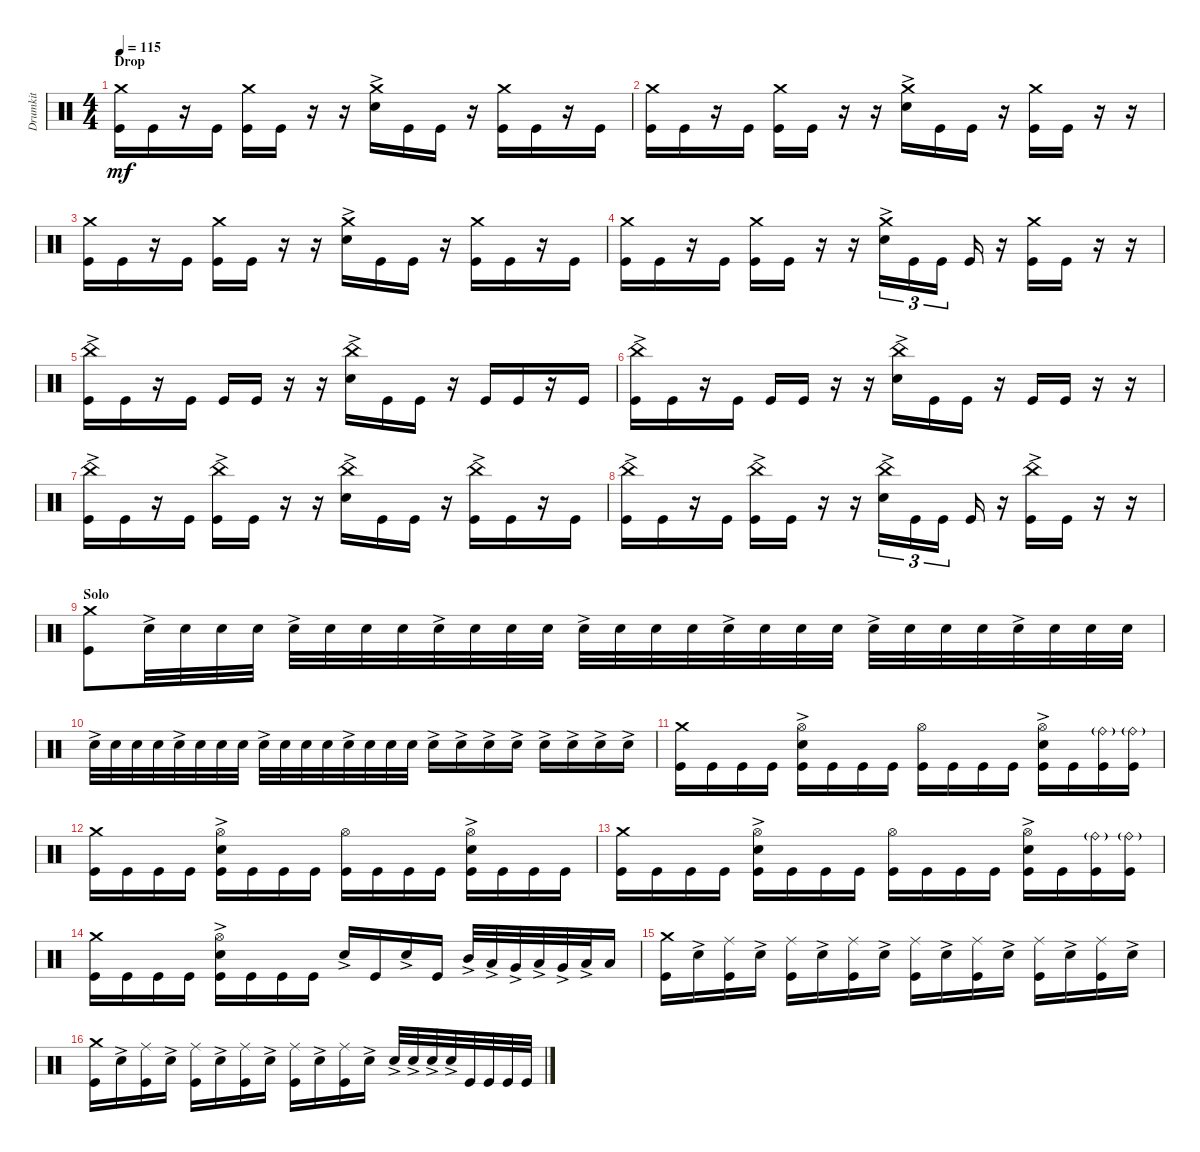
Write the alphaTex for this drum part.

\track ("Drumkit" "Drumkit") {instrument percussion}
\staff {score}
\articulation defaults
\ts (4 4)
\section ("" "Drop")
\tempo 115
\clef neutral
\ks c
("Crash medium (hit)" "Kick (hit)").16{dy mf} "Kick (hit)".16 r.16 "Kick (hit)".16 ("Crash medium (hit)" "Kick (hit)").16 "Kick (hit)".16 r.16 r.16 ("Crash medium (hit)" "Snare (hit) 2"{ac}).16 "Kick (hit)".16 "Kick (hit)".16 r.16 ("Crash medium (hit)" "Kick (hit)").16 "Kick (hit)".16 r.16 "Kick (hit)".16 |
("Crash medium (hit)" "Kick (hit)").16 "Kick (hit)".16 r.16 "Kick (hit)".16 ("Crash medium (hit)" "Kick (hit)").16 "Kick (hit)".16 r.16 r.16 ("Crash medium (hit)" "Snare (hit) 2"{ac}).16 "Kick (hit)".16 "Kick (hit)".16 r.16 ("Crash medium (hit)" "Kick (hit)").16 "Kick (hit)".16 r.16 r.16 |
("Crash medium (hit)" "Kick (hit)").16 "Kick (hit)".16 r.16 "Kick (hit)".16 ("Crash medium (hit)" "Kick (hit)").16 "Kick (hit)".16 r.16 r.16 ("Crash medium (hit)" "Snare (hit) 2"{ac}).16 "Kick (hit)".16 "Kick (hit)".16 r.16 ("Crash medium (hit)" "Kick (hit)").16 "Kick (hit)".16 r.16 "Kick (hit)".16 |
("Crash medium (hit)" "Kick (hit)").16 "Kick (hit)".16 r.16 "Kick (hit)".16 ("Crash medium (hit)" "Kick (hit)").16 "Kick (hit)".16 r.16 r.16 ("Crash medium (hit)" "Snare (hit) 2"{ac}).16{tu (3 2)} "Kick (hit)".16{tu (3 2)} "Kick (hit)".16{tu (3 2)} "Kick (hit)".16 r.16 ("Kick (hit)" "Crash medium (hit)").16 "Kick (hit)".16 r.16 r.16 |
("Kick (hit)" "China (hit)"{ac}).16 "Kick (hit)".16 r.16 "Kick (hit)".16 "Kick (hit)".16 "Kick (hit)".16 r.16 r.16 ("Snare (hit) 2"{ac} "China (hit)"{ac}).16 "Kick (hit)".16 "Kick (hit)".16 r.16 "Kick (hit)".16 "Kick (hit)".16 r.16 "Kick (hit)".16 |
("Kick (hit)" "China (hit)"{ac}).16 "Kick (hit)".16 r.16 "Kick (hit)".16 "Kick (hit)".16 "Kick (hit)".16 r.16 r.16 ("Snare (hit) 2"{ac} "China (hit)"{ac}).16 "Kick (hit)".16 "Kick (hit)".16 r.16 "Kick (hit)".16 "Kick (hit)".16 r.16 r.16 |
("Kick (hit)" "China (hit)"{ac}).16 "Kick (hit)".16 r.16 "Kick (hit)".16 ("Kick (hit)" "China (hit)"{ac}).16 "Kick (hit)".16 r.16 r.16 ("Snare (hit) 2"{ac} "China (hit)"{ac}).16 "Kick (hit)".16 "Kick (hit)".16 r.16 ("Kick (hit)" "China (hit)"{ac}).16 "Kick (hit)".16 r.16 "Kick (hit)".16 |
("Kick (hit)" "China (hit)"{ac}).16 "Kick (hit)".16 r.16 "Kick (hit)".16 ("Kick (hit)" "China (hit)"{ac}).16 "Kick (hit)".16 r.16 r.16 ("Snare (hit) 2"{ac} "China (hit)"{ac}).16{tu (3 2)} "Kick (hit)".16{tu (3 2)} "Kick (hit)".16{tu (3 2)} "Kick (hit)".16 r.16 ("Kick (hit)" "China (hit)"{ac}).16 "Kick (hit)".16 r.16 r.16 |
\section ("" "Solo")
("Kick (hit)" "Crash medium (hit)").8 "Snare (hit) 2"{ac}.32 "Snare (hit) 2".32 "Snare (hit) 2".32 "Snare (hit) 2".32 "Snare (hit) 2"{ac}.32 "Snare (hit) 2".32 "Snare (hit) 2".32 "Snare (hit) 2".32 "Snare (hit) 2"{ac}.32 "Snare (hit) 2".32 "Snare (hit) 2".32 "Snare (hit) 2".32 "Snare (hit) 2"{ac}.32 "Snare (hit) 2".32 "Snare (hit) 2".32 "Snare (hit) 2".32 "Snare (hit) 2"{ac}.32 "Snare (hit) 2".32 "Snare (hit) 2".32 "Snare (hit) 2".32 "Snare (hit) 2"{ac}.32 "Snare (hit) 2".32 "Snare (hit) 2".32 "Snare (hit) 2".32 "Snare (hit) 2"{ac}.32 "Snare (hit) 2".32 "Snare (hit) 2".32 "Snare (hit) 2".32 |
"Snare (hit) 2"{ac}.32 "Snare (hit) 2".32 "Snare (hit) 2".32 "Snare (hit) 2".32 "Snare (hit) 2"{ac}.32 "Snare (hit) 2".32 "Snare (hit) 2".32 "Snare (hit) 2".32 "Snare (hit) 2"{ac}.32 "Snare (hit) 2".32 "Snare (hit) 2".32 "Snare (hit) 2".32 "Snare (hit) 2"{ac}.32 "Snare (hit) 2".32 "Snare (hit) 2".32 "Snare (hit) 2".32 "Snare (hit) 2"{ac}.16 "Snare (hit) 2"{ac}.16 "Snare (hit) 2"{ac}.16 "Snare (hit) 2"{ac}.16 "Snare (hit) 2"{ac}.16 "Snare (hit) 2"{ac}.16 "Snare (hit) 2"{ac}.16 "Snare (hit) 2"{ac}.16 |
("Kick (hit)" "Crash medium (hit)").16 "Kick (hit)".16 "Kick (hit)".16 "Kick (hit)".16 ("Kick (hit)" "Hi-Hat (open)" "Snare (hit) 2"{ac}).16 "Kick (hit)".16 "Kick (hit)".16 "Kick (hit)".16 ("Kick (hit)" "Hi-Hat (open)").16 "Kick (hit)".16 "Kick (hit)".16 "Kick (hit)".16 ("Kick (hit)" "Hi-Hat (open)" "Snare (hit) 2"{ac}).16 "Kick (hit)".16 ("Kick (hit)" "Ride (bell)"{g}).16 ("Kick (hit)" "Ride (bell)"{g}).16 |
("Kick (hit)" "Crash medium (hit)").16 "Kick (hit)".16 "Kick (hit)".16 "Kick (hit)".16 ("Kick (hit)" "Hi-Hat (open)" "Snare (hit) 2"{ac}).16 "Kick (hit)".16 "Kick (hit)".16 "Kick (hit)".16 ("Kick (hit)" "Hi-Hat (open)").16 "Kick (hit)".16 "Kick (hit)".16 "Kick (hit)".16 ("Kick (hit)" "Hi-Hat (open)" "Snare (hit) 2"{ac}).16 "Kick (hit)".16 "Kick (hit)".16 "Kick (hit)".16 |
("Kick (hit)" "Crash medium (hit)").16 "Kick (hit)".16 "Kick (hit)".16 "Kick (hit)".16 ("Kick (hit)" "Hi-Hat (open)" "Snare (hit) 2"{ac}).16 "Kick (hit)".16 "Kick (hit)".16 "Kick (hit)".16 ("Kick (hit)" "Hi-Hat (open)").16 "Kick (hit)".16 "Kick (hit)".16 "Kick (hit)".16 ("Kick (hit)" "Hi-Hat (open)" "Snare (hit) 2"{ac}).16 "Kick (hit)".16 ("Kick (hit)" "Ride (bell)"{g}).16 ("Kick (hit)" "Ride (bell)"{g}).16 |
("Kick (hit)" "Crash medium (hit)").16 "Kick (hit)".16 "Kick (hit)".16 "Kick (hit)".16 ("Kick (hit)" "Hi-Hat (open)" "Snare (hit) 2"{ac}).16 "Kick (hit)".16 "Kick (hit)".16 "Kick (hit)".16 "Snare (hit) 2"{ac}.16 "Kick (hit)".16 "Snare (hit) 2"{ac}.16 "Kick (hit)".16 "Mid Tom (hit)"{ac}.32 "Low Tom (hit)"{ac}.32 "Very Low Tom (hit)"{ac}.32 "Low Tom (hit)"{ac}.32 "Very Low Tom (hit)"{ac}.32 "Low Floor Tom (hit)"{ac}.32 "Low Floor Tom (hit)".16 |
("Kick (hit)" "Crash medium (hit)").16 "Snare (hit) 2"{ac}.16 ("Kick (hit)" "Ride (middle)").16 "Snare (hit) 2"{ac}.16 ("Kick (hit)" "Ride (middle)").16 "Snare (hit) 2"{ac}.16 ("Kick (hit)" "Ride (middle)").16 "Snare (hit) 2"{ac}.16 ("Kick (hit)" "Ride (middle)").16 "Snare (hit) 2"{ac}.16 ("Kick (hit)" "Ride (middle)").16 "Snare (hit) 2"{ac}.16 ("Kick (hit)" "Ride (middle)").16 "Snare (hit) 2"{ac}.16 ("Kick (hit)" "Ride (middle)").16 "Snare (hit) 2"{ac}.16 |
("Kick (hit)" "Crash medium (hit)").16 "Snare (hit) 2"{ac}.16 ("Kick (hit)" "Ride (middle)").16 "Snare (hit) 2"{ac}.16 ("Kick (hit)" "Ride (middle)").16 "Snare (hit) 2"{ac}.16 ("Kick (hit)" "Ride (middle)").16 "Snare (hit) 2"{ac}.16 ("Kick (hit)" "Ride (middle)").16 "Snare (hit) 2"{ac}.16 ("Kick (hit)" "Ride (middle)").16 "Snare (hit) 2"{ac}.16 "Snare (hit) 2"{ac}.32 "Snare (hit) 2"{ac}.32 "Snare (hit) 2"{ac}.32 "Snare (hit) 2"{ac}.32 "Kick (hit)".32 "Kick (hit)".32 "Kick (hit)".32 "Kick (hit)".32
